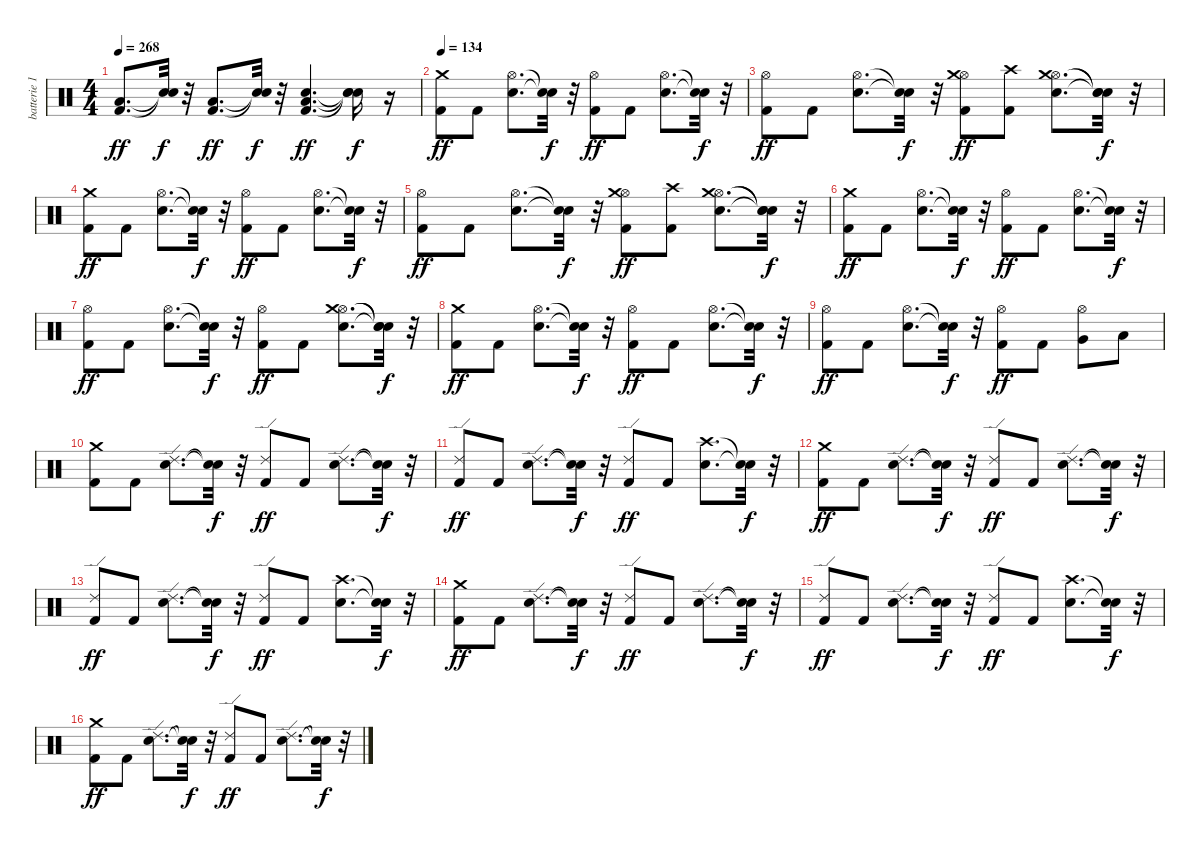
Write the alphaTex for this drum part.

\track ("batterie 1" "batterie 1") {instrument percussion}
\staff {score}
\articulation defaults
\ts (4 4)
\tempo 268
\clef neutral
\ks c
("Kick (hit) 2" "Low Floor Tom (hit)").8{d dy ff} ("Snare (hit)"{t} "Snare (hit)"{t}).32{dy f} r.32 ("Kick (hit) 2" "Low Floor Tom (hit)").8{d dy ff} ("Snare (hit)"{t} "Snare (hit)"{t}).32{dy f} r.32 ("Kick (hit) 2" "Electric Snare (hit)" "Low Floor Tom (hit)").4{d dy ff} ("Snare (hit)"{t} "Snare (hit)"{t} "Snare (hit)"{t}).16{dy f} r.16 |
\tempo 134
("Kick (hit) 2" "Crash medium (hit)").8{dy ff} "Kick (hit) 2".8 ("Electric Snare (hit)" "Hi-Hat (open)").8{d} ("Snare (hit)"{t} "Snare (hit)"{t}).32{dy f} r.32 ("Kick (hit) 2" "Hi-Hat (open)").8{dy ff} "Kick (hit) 2".8 ("Electric Snare (hit)" "Hi-Hat (open)").8{d} ("Snare (hit)"{t} "Snare (hit)"{t}).32{dy f} r.32 |
("Kick (hit) 2" "Hi-Hat (open)").8{dy ff} "Kick (hit) 2".8 ("Electric Snare (hit)" "Hi-Hat (open)").8{d} ("Snare (hit)"{t} "Snare (hit)"{t}).32{dy f} r.32 ("Kick (hit) 2" "Hi-Hat (open)" "Crash medium (hit)").8{dy ff} ("Kick (hit) 2" "Crash high (hit)").8 ("Electric Snare (hit)" "Hi-Hat (open)" "Crash medium (hit)").8{d} ("Snare (hit)"{t} "Snare (hit)"{t} "Snare (hit)"{t}).32{dy f} r.32 |
("Kick (hit) 2" "Crash medium (hit)").8{dy ff} "Kick (hit) 2".8 ("Electric Snare (hit)" "Hi-Hat (open)").8{d} ("Snare (hit)"{t} "Snare (hit)"{t}).32{dy f} r.32 ("Kick (hit) 2" "Hi-Hat (open)").8{dy ff} "Kick (hit) 2".8 ("Electric Snare (hit)" "Hi-Hat (open)").8{d} ("Snare (hit)"{t} "Snare (hit)"{t}).32{dy f} r.32 |
("Kick (hit) 2" "Hi-Hat (open)").8{dy ff} "Kick (hit) 2".8 ("Electric Snare (hit)" "Hi-Hat (open)").8{d} ("Snare (hit)"{t} "Snare (hit)"{t}).32{dy f} r.32 ("Kick (hit) 2" "Hi-Hat (open)" "Crash medium (hit)").8{dy ff} ("Kick (hit) 2" "Crash high (hit)").8 ("Electric Snare (hit)" "Hi-Hat (open)" "Crash medium (hit)").8{d} ("Snare (hit)"{t} "Snare (hit)"{t} "Snare (hit)"{t}).32{dy f} r.32 |
("Kick (hit) 2" "Crash medium (hit)").8{dy ff} "Kick (hit) 2".8 ("Electric Snare (hit)" "Hi-Hat (open)").8{d} ("Snare (hit)"{t} "Snare (hit)"{t}).32{dy f} r.32 ("Kick (hit) 2" "Hi-Hat (open)").8{dy ff} "Kick (hit) 2".8 ("Electric Snare (hit)" "Hi-Hat (open)").8{d} ("Snare (hit)"{t} "Snare (hit)"{t}).32{dy f} r.32 |
("Kick (hit) 2" "Hi-Hat (open)").8{dy ff} "Kick (hit) 2".8 ("Electric Snare (hit)" "Hi-Hat (open)").8{d} ("Snare (hit)"{t} "Snare (hit)"{t}).32{dy f} r.32 ("Kick (hit) 2" "Hi-Hat (open)").8{dy ff} "Kick (hit) 2".8 ("Electric Snare (hit)" "Hi-Hat (open)" "Crash medium (hit)").8{d} ("Snare (hit)"{t} "Snare (hit)"{t} "Snare (hit)"{t}).32{dy f} r.32 |
("Kick (hit) 2" "Crash medium (hit)").8{dy ff} "Kick (hit) 2".8 ("Electric Snare (hit)" "Hi-Hat (open)").8{d} ("Snare (hit)"{t} "Snare (hit)"{t}).32{dy f} r.32 ("Kick (hit) 2" "Hi-Hat (open)").8{dy ff} "Kick (hit) 2".8 ("Electric Snare (hit)" "Hi-Hat (open)").8{d} ("Snare (hit)"{t} "Snare (hit)"{t}).32{dy f} r.32 |
("Kick (hit) 2" "Hi-Hat (open)").8{dy ff} "Kick (hit) 2".8 ("Electric Snare (hit)" "Hi-Hat (open)").8{d} ("Snare (hit)"{t} "Snare (hit)"{t}).32{dy f} r.32 ("Kick (hit) 2" "Hi-Hat (open)").8{dy ff} "Kick (hit) 2".8 ("Very Low Tom (hit)" "Hi-Hat (open)").8 "Low Floor Tom (hit)".8 |
("Kick (hit) 2" "Crash medium (hit)").8 "Kick (hit) 2".8 ("Electric Snare (hit)" "Ride (edge) 2").8{d} ("Snare (hit)"{t} "Snare (hit)"{t}).32{dy f} r.32 ("Kick (hit) 2" "Ride (edge) 2").8{dy ff} "Kick (hit) 2".8 ("Electric Snare (hit)" "Ride (edge) 2").8{d} ("Snare (hit)"{t} "Snare (hit)"{t}).32{dy f} r.32 |
("Kick (hit) 2" "Ride (edge) 2").8{dy ff} "Kick (hit) 2".8 ("Electric Snare (hit)" "Ride (edge) 2").8{d} ("Snare (hit)"{t} "Snare (hit)"{t}).32{dy f} r.32 ("Kick (hit) 2" "Ride (edge) 2").8{dy ff} "Kick (hit) 2".8 ("Electric Snare (hit)" "Crash high (hit)").8{d} ("Snare (hit)"{t} "Snare (hit)"{t}).32{dy f} r.32 |
("Kick (hit) 2" "Crash medium (hit)").8{dy ff} "Kick (hit) 2".8 ("Electric Snare (hit)" "Ride (edge) 2").8{d} ("Snare (hit)"{t} "Snare (hit)"{t}).32{dy f} r.32 ("Kick (hit) 2" "Ride (edge) 2").8{dy ff} "Kick (hit) 2".8 ("Electric Snare (hit)" "Ride (edge) 2").8{d} ("Snare (hit)"{t} "Snare (hit)"{t}).32{dy f} r.32 |
("Kick (hit) 2" "Ride (edge) 2").8{dy ff} "Kick (hit) 2".8 ("Electric Snare (hit)" "Ride (edge) 2").8{d} ("Snare (hit)"{t} "Snare (hit)"{t}).32{dy f} r.32 ("Kick (hit) 2" "Ride (edge) 2").8{dy ff} "Kick (hit) 2".8 ("Electric Snare (hit)" "Crash high (hit)").8{d} ("Snare (hit)"{t} "Snare (hit)"{t}).32{dy f} r.32 |
("Kick (hit) 2" "Crash medium (hit)").8{dy ff} "Kick (hit) 2".8 ("Electric Snare (hit)" "Ride (edge) 2").8{d} ("Snare (hit)"{t} "Snare (hit)"{t}).32{dy f} r.32 ("Kick (hit) 2" "Ride (edge) 2").8{dy ff} "Kick (hit) 2".8 ("Electric Snare (hit)" "Ride (edge) 2").8{d} ("Snare (hit)"{t} "Snare (hit)"{t}).32{dy f} r.32 |
("Kick (hit) 2" "Ride (edge) 2").8{dy ff} "Kick (hit) 2".8 ("Electric Snare (hit)" "Ride (edge) 2").8{d} ("Snare (hit)"{t} "Snare (hit)"{t}).32{dy f} r.32 ("Kick (hit) 2" "Ride (edge) 2").8{dy ff} "Kick (hit) 2".8 ("Electric Snare (hit)" "Crash high (hit)").8{d} ("Snare (hit)"{t} "Snare (hit)"{t}).32{dy f} r.32 |
("Kick (hit) 2" "Crash medium (hit)").8{dy ff} "Kick (hit) 2".8 ("Electric Snare (hit)" "Ride (edge) 2").8{d} ("Snare (hit)"{t} "Snare (hit)"{t}).32{dy f} r.32 ("Kick (hit) 2" "Ride (edge) 2").8{dy ff} "Kick (hit) 2".8 ("Electric Snare (hit)" "Ride (edge) 2").8{d} ("Snare (hit)"{t} "Snare (hit)"{t}).32{dy f} r.32
